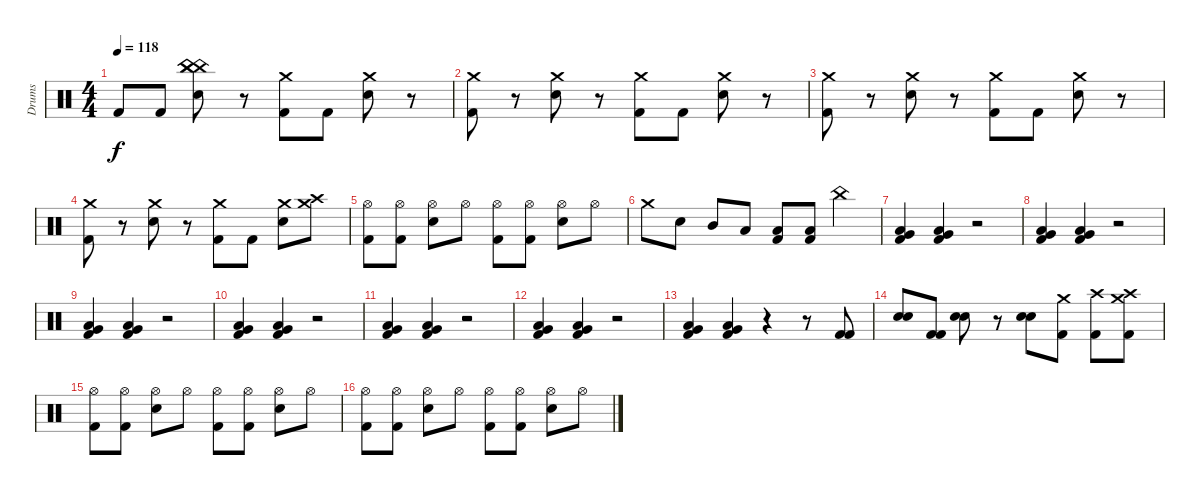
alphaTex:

\track ("Drums" "Drums") {instrument percussion}
\staff {score}
\articulation defaults
\ts (4 4)
\tempo 118
\clef neutral
\ks c "Kick (hit) 2".8{dy f} "Kick (hit) 2".8
("China (hit)" "China (hit)" "China (hit)" "Electric Snare (hit)").8 r.8 ("Crash medium (hit)" "Kick (hit) 2").8 "Kick (hit) 2".8 ("Crash medium (hit)" "Electric Snare (hit)").8 r.8 |
("Crash medium (hit)" "Kick (hit) 2").8 r.8 ("Crash medium (hit)" "Electric Snare (hit)").8 r.8 ("Crash medium (hit)" "Kick (hit) 2").8 "Kick (hit) 2".8 ("Crash medium (hit)" "Electric Snare (hit)").8 r.8 |
("Crash medium (hit)" "Kick (hit) 2").8 r.8 ("Crash medium (hit)" "Electric Snare (hit)").8 r.8 ("Crash medium (hit)" "Kick (hit) 2").8 "Kick (hit) 2".8 ("Crash medium (hit)" "Electric Snare (hit)").8 r.8 |
("Crash medium (hit)" "Kick (hit) 2").8 r.8 ("Crash medium (hit)" "Electric Snare (hit)").8 r.8 ("Crash medium (hit)" "Kick (hit) 2").8 "Kick (hit) 2".8 ("Crash medium (hit)" "Electric Snare (hit)").8 ("Crash medium (hit)" "Crash high (hit)").8 |
("Hi-Hat (open)" "Kick (hit) 2").8 ("Hi-Hat (open)" "Kick (hit) 2").8 ("Hi-Hat (open)" "Electric Snare (hit)").8 "Hi-Hat (open)".8 ("Hi-Hat (open)" "Kick (hit) 2").8 ("Hi-Hat (open)" "Kick (hit) 2").8 ("Hi-Hat (open)" "Electric Snare (hit)").8 "Hi-Hat (open)".8 |
"Crash medium (hit)".8 "Electric Snare (hit)".8 "Mid Tom (hit)".8 "Low Tom (hit)".8 ("Low Floor Tom (hit)" "Kick (hit) 2").8 ("Low Floor Tom (hit)" "Kick (hit) 2").8 "China (hit)".4 |
("Low Floor Tom (hit)" "Very Low Tom (hit)" "Kick (hit) 2").4 ("Low Floor Tom (hit)" "Very Low Tom (hit)" "Kick (hit) 2").4 r.2 |
("Low Floor Tom (hit)" "Very Low Tom (hit)" "Kick (hit) 2").4 ("Low Floor Tom (hit)" "Very Low Tom (hit)" "Kick (hit) 2").4 r.2 |
("Low Floor Tom (hit)" "Very Low Tom (hit)" "Kick (hit) 2").4 ("Low Floor Tom (hit)" "Very Low Tom (hit)" "Kick (hit) 2").4 r.2 |
("Low Floor Tom (hit)" "Very Low Tom (hit)" "Kick (hit) 2").4 ("Low Floor Tom (hit)" "Very Low Tom (hit)" "Kick (hit) 2").4 r.2 |
("Low Floor Tom (hit)" "Very Low Tom (hit)" "Kick (hit) 2").4 ("Low Floor Tom (hit)" "Very Low Tom (hit)" "Kick (hit) 2").4 r.2 |
("Low Floor Tom (hit)" "Very Low Tom (hit)" "Kick (hit) 2").4 ("Low Floor Tom (hit)" "Very Low Tom (hit)" "Kick (hit) 2").4 r.2 |
("Low Floor Tom (hit)" "Very Low Tom (hit)" "Kick (hit) 2").4 ("Low Floor Tom (hit)" "Very Low Tom (hit)" "Kick (hit) 2").4 r.4 r.8 ("Kick (hit) 2" "Kick (hit) 2").8 |
("Electric Snare (hit)" "Electric Snare (hit)").8 ("Kick (hit) 2" "Kick (hit) 2").8 ("Electric Snare (hit)" "Electric Snare (hit)").8 r.8 ("Electric Snare (hit)" "Electric Snare (hit)").8 ("Crash medium (hit)" "Kick (hit) 2").8 ("Crash high (hit)" "Kick (hit) 2").8 ("Crash medium (hit)" "Crash high (hit)" "Kick (hit) 2").8 |
("Hi-Hat (open)" "Kick (hit) 2").8 ("Hi-Hat (open)" "Kick (hit) 2").8 ("Hi-Hat (open)" "Electric Snare (hit)").8 "Hi-Hat (open)".8 ("Hi-Hat (open)" "Kick (hit) 2").8 ("Hi-Hat (open)" "Kick (hit) 2").8 ("Hi-Hat (open)" "Electric Snare (hit)").8 "Hi-Hat (open)".8 |
("Hi-Hat (open)" "Kick (hit) 2").8 ("Hi-Hat (open)" "Kick (hit) 2").8 ("Hi-Hat (open)" "Electric Snare (hit)").8 "Hi-Hat (open)".8 ("Hi-Hat (open)" "Kick (hit) 2").8 ("Hi-Hat (open)" "Kick (hit) 2").8 ("Hi-Hat (open)" "Electric Snare (hit)").8 "Hi-Hat (open)".8
